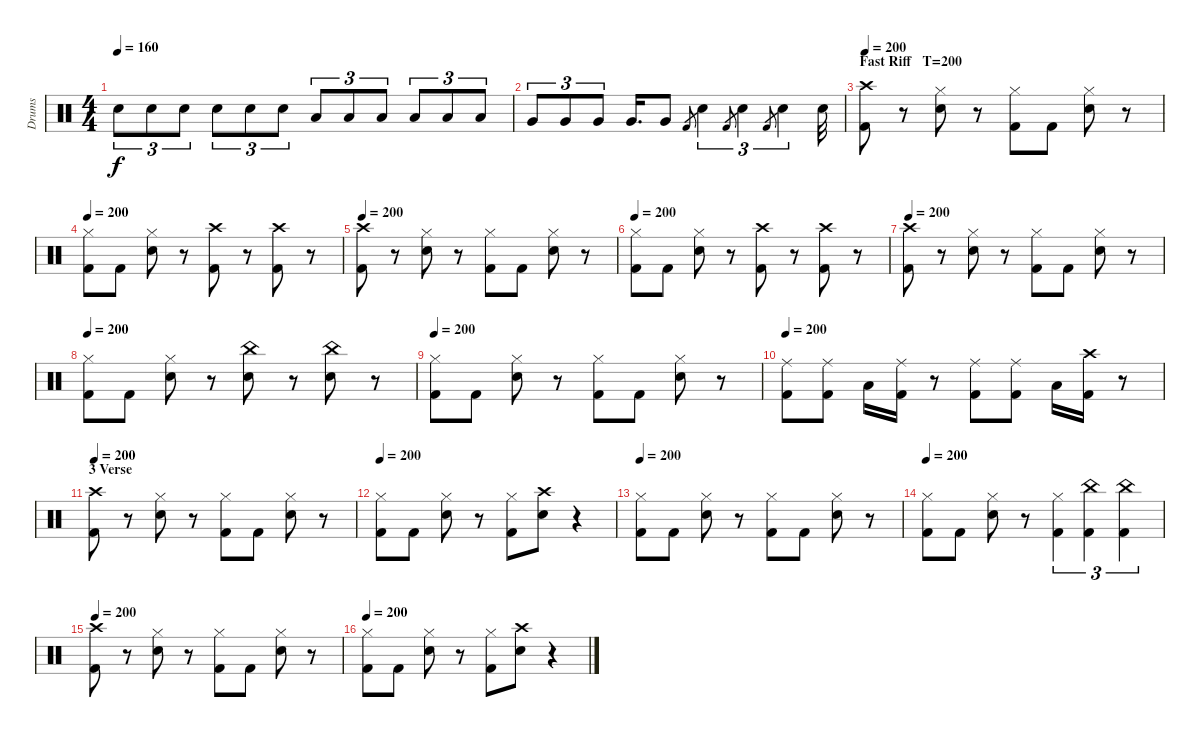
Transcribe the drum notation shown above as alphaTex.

\track ("Drums" "Drums") {instrument percussion}
\staff {score}
\articulation defaults
\ts (4 4)
\tempo 160
\clef neutral
\ks c "Snare (hit) 2".8{tu (3 2) dy f} "Snare (hit) 2".8{tu (3 2)} "Snare (hit) 2".8{tu (3 2)} "Snare (hit) 2".8{tu (3 2)} "Snare (hit) 2".8{tu (3 2)} "Snare (hit) 2".8{tu (3 2)} "Low Tom (hit)".8{tu (3 2)} "Low Tom (hit)".8{tu (3 2)} "Low Tom (hit)".8{tu (3 2)} "Low Tom (hit)".8{tu (3 2)} "Low Tom (hit)".8{tu (3 2)} "Low Tom (hit)".8{tu (3 2)}
|
"Very Low Tom (hit)".8{tu (3 2)} "Very Low Tom (hit)".8{tu (3 2)} "Very Low Tom (hit)".8{tu (3 2)} "Very Low Tom (hit)".16{d} "Very Low Tom (hit)".8 "Kick (hit) 2".8{gr} "Snare (hit) 2".4{tu (3 2)} "Kick (hit) 2".8{gr} "Snare (hit) 2".4{tu (3 2)} "Kick (hit) 2".8{gr} "Snare (hit) 2".4{tu (3 2)} "Snare (hit) 2".32 |
\section ("" "Fast Riff   T=200")
\tempo 200
("Kick (hit) 2" "Crash high (hit)").8 r.8 ("Hi-Hat (closed)" "Snare (hit) 2").8 r.8 ("Kick (hit) 2" "Hi-Hat (closed)").8 "Kick (hit) 2".8 ("Snare (hit) 2" "Hi-Hat (closed)").8 r.8 |
\tempo 200
("Kick (hit) 2" "Hi-Hat (closed)").8 "Kick (hit) 2".8 ("Snare (hit) 2" "Hi-Hat (closed)").8 r.8 ("Crash high (hit)" "Kick (hit) 2").8 r.8 ("Crash high (hit)" "Kick (hit) 2").8 r.8 |
\tempo 200
("Kick (hit) 2" "Crash high (hit)").8 r.8 ("Hi-Hat (closed)" "Snare (hit) 2").8 r.8 ("Kick (hit) 2" "Hi-Hat (closed)").8 "Kick (hit) 2".8 ("Snare (hit) 2" "Hi-Hat (closed)").8 r.8 |
\tempo 200
("Kick (hit) 2" "Hi-Hat (closed)").8 "Kick (hit) 2".8 ("Snare (hit) 2" "Hi-Hat (closed)").8 r.8 ("Crash high (hit)" "Kick (hit) 2").8 r.8 ("Crash high (hit)" "Kick (hit) 2").8 r.8 |
\tempo 200
("Kick (hit) 2" "Crash high (hit)").8 r.8 ("Hi-Hat (closed)" "Snare (hit) 2").8 r.8 ("Kick (hit) 2" "Hi-Hat (closed)").8 "Kick (hit) 2".8 ("Snare (hit) 2" "Hi-Hat (closed)").8 r.8 |
\tempo 200
("Kick (hit) 2" "Hi-Hat (closed)").8 "Kick (hit) 2".8 ("Snare (hit) 2" "Hi-Hat (closed)").8 r.8 ("China (hit)" "Snare (hit) 2").8 r.8 ("China (hit)" "Snare (hit) 2").8 r.8 |
\tempo 200
("Kick (hit) 2" "Hi-Hat (closed)").8 "Kick (hit) 2".8 ("Snare (hit) 2" "Hi-Hat (closed)").8 r.8 ("Kick (hit) 2" "Hi-Hat (closed)").8 "Kick (hit) 2".8 ("Snare (hit) 2" "Hi-Hat (closed)").8 r.8 |
\tempo 200
("Ride (middle)" "Kick (hit) 2").8 ("Ride (middle)" "Kick (hit) 2").8 "Low Tom (hit)".16 ("Ride (middle)" "Kick (hit) 2").16 r.8 ("Ride (middle)" "Kick (hit) 2").8 ("Ride (middle)" "Kick (hit) 2").8 "Low Tom (hit)".16 ("Crash high (hit)" "Kick (hit) 2").16 r.8 |
\section ("" "3 Verse")
\tempo 200
("Kick (hit) 2" "Crash high (hit)").8 r.8 ("Hi-Hat (closed)" "Snare (hit) 2").8 r.8 ("Hi-Hat (closed)" "Kick (hit) 2").8 "Kick (hit) 2".8 ("Hi-Hat (closed)" "Snare (hit) 2").8 r.8 |
\tempo 200
("Kick (hit) 2" "Hi-Hat (closed)").8 "Kick (hit) 2".8 ("Snare (hit) 2" "Hi-Hat (closed)").8 r.8 ("Hi-Hat (closed)" "Kick (hit) 2").8 ("Crash high (hit)" "Snare (hit) 2").8 r.4 |
\tempo 200
("Kick (hit) 2" "Hi-Hat (closed)").8 "Kick (hit) 2".8 ("Snare (hit) 2" "Hi-Hat (closed)").8 r.8 ("Kick (hit) 2" "Hi-Hat (closed)").8 "Kick (hit) 2".8 ("Snare (hit) 2" "Hi-Hat (closed)").8 r.8 |
\tempo 200
("Kick (hit) 2" "Hi-Hat (closed)").8 "Kick (hit) 2".8 ("Snare (hit) 2" "Hi-Hat (closed)").8 r.8 ("Hi-Hat (closed)" "Kick (hit) 2").4{tu (3 2)} ("China (hit)" "Kick (hit) 2").4{tu (3 2)} ("China (hit)" "Kick (hit) 2").4{tu (3 2)} |
\tempo 200
("Kick (hit) 2" "Crash high (hit)").8 r.8 ("Hi-Hat (closed)" "Snare (hit) 2").8 r.8 ("Hi-Hat (closed)" "Kick (hit) 2").8 "Kick (hit) 2".8 ("Hi-Hat (closed)" "Snare (hit) 2").8 r.8 |
\tempo 200
("Kick (hit) 2" "Hi-Hat (closed)").8 "Kick (hit) 2".8 ("Snare (hit) 2" "Hi-Hat (closed)").8 r.8 ("Hi-Hat (closed)" "Kick (hit) 2").8 ("Crash high (hit)" "Snare (hit) 2").8 r.4
